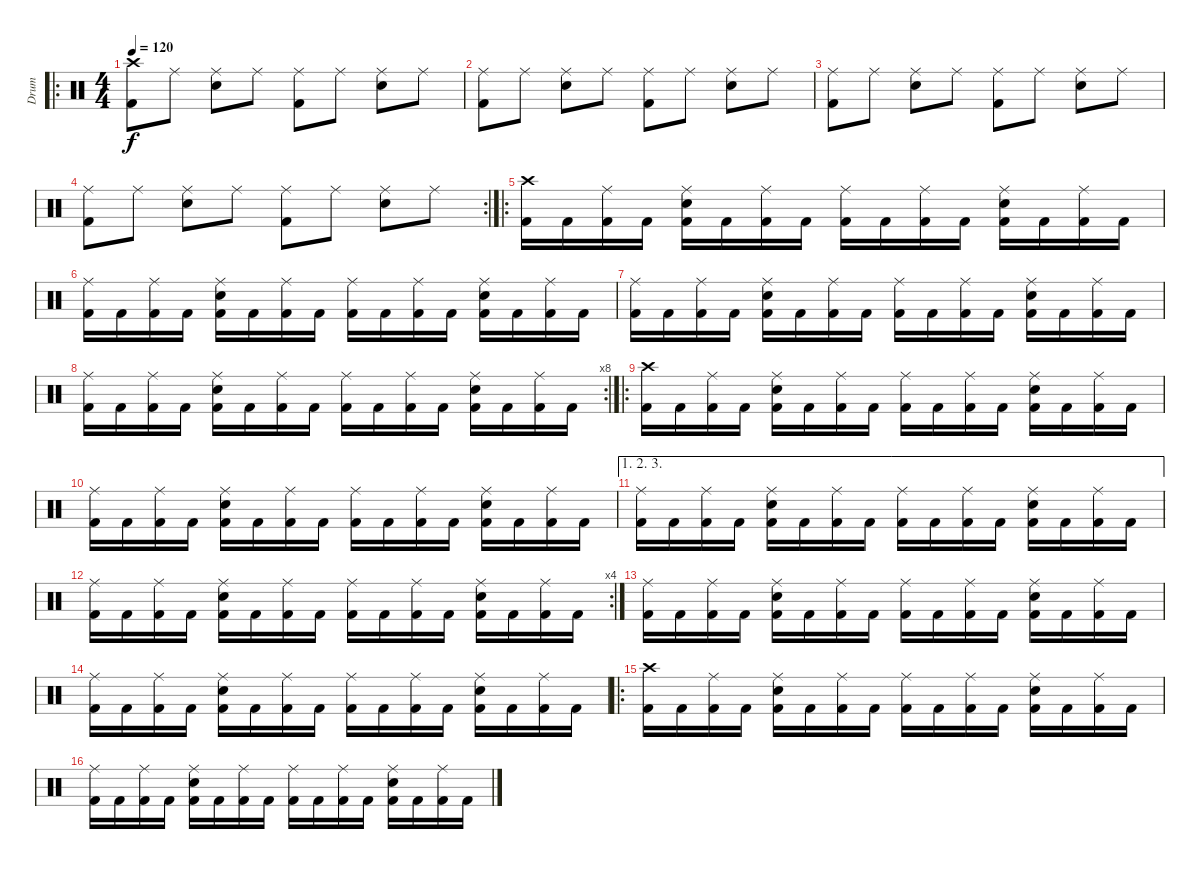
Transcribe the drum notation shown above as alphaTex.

\track ("Drum" "Drum") {instrument percussion}
\staff {score}
\articulation defaults
\ro
\ts (4 4)
\tempo 120
\clef neutral
\ks c
("Crash high (hit)" "Kick (hit) 2").8{dy f} "Ride (middle)".8 ("Ride (middle)" "Electric Snare (hit)").8 "Ride (middle)".8 ("Ride (middle)" "Kick (hit) 2").8 "Ride (middle)".8 ("Ride (middle)" "Electric Snare (hit)").8 "Ride (middle)".8 |
("Ride (middle)" "Kick (hit) 2").8 "Ride (middle)".8 ("Ride (middle)" "Electric Snare (hit)").8 "Ride (middle)".8 ("Ride (middle)" "Kick (hit) 2").8 "Ride (middle)".8 ("Ride (middle)" "Electric Snare (hit)").8 "Ride (middle)".8 |
("Ride (middle)" "Kick (hit) 2").8 "Ride (middle)".8 ("Ride (middle)" "Electric Snare (hit)").8 "Ride (middle)".8 ("Ride (middle)" "Kick (hit) 2").8 "Ride (middle)".8 ("Ride (middle)" "Electric Snare (hit)").8 "Ride (middle)".8 |
\rc 2
("Ride (middle)" "Kick (hit) 2").8 "Ride (middle)".8 ("Ride (middle)" "Electric Snare (hit)").8 "Ride (middle)".8 ("Ride (middle)" "Kick (hit) 2").8 "Ride (middle)".8 ("Ride (middle)" "Electric Snare (hit)").8 "Ride (middle)".8 |
\ro
("Crash high (hit)" "Kick (hit) 2").16 "Kick (hit) 2".16 ("Ride (middle)" "Kick (hit) 2").16 "Kick (hit) 2".16 ("Ride (middle)" "Electric Snare (hit)" "Kick (hit) 2").16 "Kick (hit) 2".16 ("Ride (middle)" "Kick (hit) 2").16 "Kick (hit) 2".16 ("Ride (middle)" "Kick (hit) 2").16 "Kick (hit) 2".16 ("Ride (middle)" "Kick (hit) 2").16 "Kick (hit) 2".16 ("Ride (middle)" "Electric Snare (hit)" "Kick (hit) 2").16 "Kick (hit) 2".16 ("Ride (middle)" "Kick (hit) 2").16 "Kick (hit) 2".16 |
("Ride (middle)" "Kick (hit) 2").16 "Kick (hit) 2".16 ("Ride (middle)" "Kick (hit) 2").16 "Kick (hit) 2".16 ("Ride (middle)" "Electric Snare (hit)" "Kick (hit) 2").16 "Kick (hit) 2".16 ("Ride (middle)" "Kick (hit) 2").16 "Kick (hit) 2".16 ("Ride (middle)" "Kick (hit) 2").16 "Kick (hit) 2".16 ("Ride (middle)" "Kick (hit) 2").16 "Kick (hit) 2".16 ("Ride (middle)" "Electric Snare (hit)" "Kick (hit) 2").16 "Kick (hit) 2".16 ("Ride (middle)" "Kick (hit) 2").16 "Kick (hit) 2".16 |
("Ride (middle)" "Kick (hit) 2").16 "Kick (hit) 2".16 ("Ride (middle)" "Kick (hit) 2").16 "Kick (hit) 2".16 ("Ride (middle)" "Electric Snare (hit)" "Kick (hit) 2").16 "Kick (hit) 2".16 ("Ride (middle)" "Kick (hit) 2").16 "Kick (hit) 2".16 ("Ride (middle)" "Kick (hit) 2").16 "Kick (hit) 2".16 ("Ride (middle)" "Kick (hit) 2").16 "Kick (hit) 2".16 ("Ride (middle)" "Electric Snare (hit)" "Kick (hit) 2").16 "Kick (hit) 2".16 ("Ride (middle)" "Kick (hit) 2").16 "Kick (hit) 2".16 |
\rc 8
("Ride (middle)" "Kick (hit) 2").16 "Kick (hit) 2".16 ("Ride (middle)" "Kick (hit) 2").16 "Kick (hit) 2".16 ("Ride (middle)" "Electric Snare (hit)" "Kick (hit) 2").16 "Kick (hit) 2".16 ("Ride (middle)" "Kick (hit) 2").16 "Kick (hit) 2".16 ("Ride (middle)" "Kick (hit) 2").16 "Kick (hit) 2".16 ("Ride (middle)" "Kick (hit) 2").16 "Kick (hit) 2".16 ("Ride (middle)" "Electric Snare (hit)" "Kick (hit) 2").16 "Kick (hit) 2".16 ("Ride (middle)" "Kick (hit) 2").16 "Kick (hit) 2".16 |
\ro
("Crash high (hit)" "Kick (hit) 2").16 "Kick (hit) 2".16 ("Ride (middle)" "Kick (hit) 2").16 "Kick (hit) 2".16 ("Ride (middle)" "Electric Snare (hit)" "Kick (hit) 2").16 "Kick (hit) 2".16 ("Ride (middle)" "Kick (hit) 2").16 "Kick (hit) 2".16 ("Ride (middle)" "Kick (hit) 2").16 "Kick (hit) 2".16 ("Ride (middle)" "Kick (hit) 2").16 "Kick (hit) 2".16 ("Ride (middle)" "Electric Snare (hit)" "Kick (hit) 2").16 "Kick (hit) 2".16 ("Ride (middle)" "Kick (hit) 2").16 "Kick (hit) 2".16 |
("Ride (middle)" "Kick (hit) 2").16 "Kick (hit) 2".16 ("Ride (middle)" "Kick (hit) 2").16 "Kick (hit) 2".16 ("Ride (middle)" "Electric Snare (hit)" "Kick (hit) 2").16 "Kick (hit) 2".16 ("Ride (middle)" "Kick (hit) 2").16 "Kick (hit) 2".16 ("Ride (middle)" "Kick (hit) 2").16 "Kick (hit) 2".16 ("Ride (middle)" "Kick (hit) 2").16 "Kick (hit) 2".16 ("Ride (middle)" "Electric Snare (hit)" "Kick (hit) 2").16 "Kick (hit) 2".16 ("Ride (middle)" "Kick (hit) 2").16 "Kick (hit) 2".16 |
\ae (1 2 3)
("Ride (middle)" "Kick (hit) 2").16 "Kick (hit) 2".16 ("Ride (middle)" "Kick (hit) 2").16 "Kick (hit) 2".16 ("Ride (middle)" "Electric Snare (hit)" "Kick (hit) 2").16 "Kick (hit) 2".16 ("Ride (middle)" "Kick (hit) 2").16 "Kick (hit) 2".16 ("Ride (middle)" "Kick (hit) 2").16 "Kick (hit) 2".16 ("Ride (middle)" "Kick (hit) 2").16 "Kick (hit) 2".16 ("Ride (middle)" "Electric Snare (hit)" "Kick (hit) 2").16 "Kick (hit) 2".16 ("Ride (middle)" "Kick (hit) 2").16 "Kick (hit) 2".16 |
\rc 4
("Ride (middle)" "Kick (hit) 2").16 "Kick (hit) 2".16 ("Ride (middle)" "Kick (hit) 2").16 "Kick (hit) 2".16 ("Ride (middle)" "Electric Snare (hit)" "Kick (hit) 2").16 "Kick (hit) 2".16 ("Ride (middle)" "Kick (hit) 2").16 "Kick (hit) 2".16 ("Ride (middle)" "Kick (hit) 2").16 "Kick (hit) 2".16 ("Ride (middle)" "Kick (hit) 2").16 "Kick (hit) 2".16 ("Ride (middle)" "Electric Snare (hit)" "Kick (hit) 2").16 "Kick (hit) 2".16 ("Ride (middle)" "Kick (hit) 2").16 "Kick (hit) 2".16 |
("Ride (middle)" "Kick (hit) 2").16 "Kick (hit) 2".16 ("Ride (middle)" "Kick (hit) 2").16 "Kick (hit) 2".16 ("Ride (middle)" "Electric Snare (hit)" "Kick (hit) 2").16 "Kick (hit) 2".16 ("Ride (middle)" "Kick (hit) 2").16 "Kick (hit) 2".16 ("Ride (middle)" "Kick (hit) 2").16 "Kick (hit) 2".16 ("Ride (middle)" "Kick (hit) 2").16 "Kick (hit) 2".16 ("Ride (middle)" "Electric Snare (hit)" "Kick (hit) 2").16 "Kick (hit) 2".16 ("Ride (middle)" "Kick (hit) 2").16 "Kick (hit) 2".16 |
("Ride (middle)" "Kick (hit) 2").16 "Kick (hit) 2".16 ("Ride (middle)" "Kick (hit) 2").16 "Kick (hit) 2".16 ("Ride (middle)" "Electric Snare (hit)" "Kick (hit) 2").16 "Kick (hit) 2".16 ("Ride (middle)" "Kick (hit) 2").16 "Kick (hit) 2".16 ("Ride (middle)" "Kick (hit) 2").16 "Kick (hit) 2".16 ("Ride (middle)" "Kick (hit) 2").16 "Kick (hit) 2".16 ("Ride (middle)" "Electric Snare (hit)" "Kick (hit) 2").16 "Kick (hit) 2".16 ("Ride (middle)" "Kick (hit) 2").16 "Kick (hit) 2".16 |
\ro
("Crash high (hit)" "Kick (hit) 2").16 "Kick (hit) 2".16 ("Ride (middle)" "Kick (hit) 2").16 "Kick (hit) 2".16 ("Ride (middle)" "Electric Snare (hit)" "Kick (hit) 2").16 "Kick (hit) 2".16 ("Ride (middle)" "Kick (hit) 2").16 "Kick (hit) 2".16 ("Ride (middle)" "Kick (hit) 2").16 "Kick (hit) 2".16 ("Ride (middle)" "Kick (hit) 2").16 "Kick (hit) 2".16 ("Ride (middle)" "Electric Snare (hit)" "Kick (hit) 2").16 "Kick (hit) 2".16 ("Ride (middle)" "Kick (hit) 2").16 "Kick (hit) 2".16 |
("Ride (middle)" "Kick (hit) 2").16 "Kick (hit) 2".16 ("Ride (middle)" "Kick (hit) 2").16 "Kick (hit) 2".16 ("Ride (middle)" "Electric Snare (hit)" "Kick (hit) 2").16 "Kick (hit) 2".16 ("Ride (middle)" "Kick (hit) 2").16 "Kick (hit) 2".16 ("Ride (middle)" "Kick (hit) 2").16 "Kick (hit) 2".16 ("Ride (middle)" "Kick (hit) 2").16 "Kick (hit) 2".16 ("Ride (middle)" "Electric Snare (hit)" "Kick (hit) 2").16 "Kick (hit) 2".16 ("Ride (middle)" "Kick (hit) 2").16 "Kick (hit) 2".16
